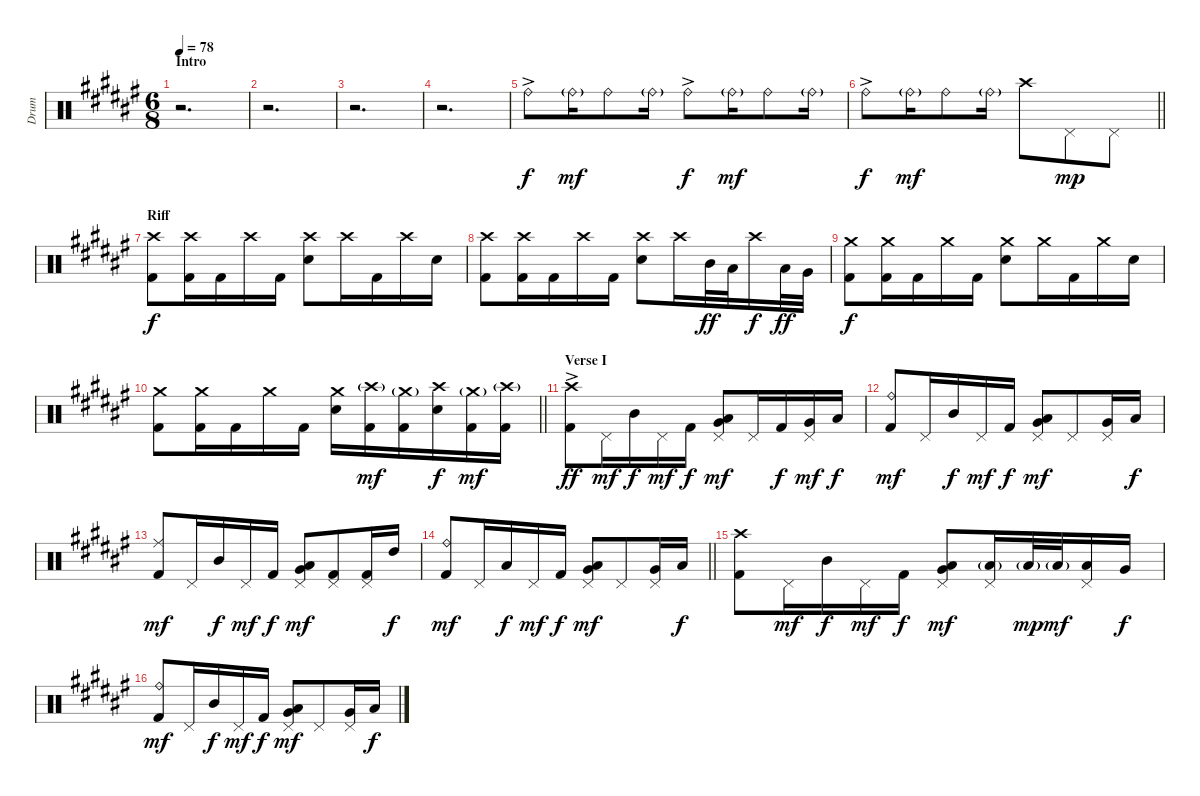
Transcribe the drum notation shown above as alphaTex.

\track ("Drum" "Drum") {instrument percussion}
\staff {score}
\articulation defaults
\ts (6 8)
\section ("" "Intro")
\tempo 78
\clef neutral
\ks d#minor
r.2{d dy f} |
r.2{d} |
r.2{d} |
r.2{d} |
"Ride (bell)"{ac}.8 "Ride (bell)"{g}.16{dy mf} "Ride (bell)".8 "Ride (bell)"{g}.16 "Ride (bell)"{ac}.8{dy f} "Ride (bell)"{g}.16{dy mf} "Ride (bell)".8 "Ride (bell)"{g}.16 |
\barLineRight lightlight "Ride (bell)"{ac}.8{dy f} "Ride (bell)"{g}.16{dy mf} "Ride (bell)".8 "Ride (bell)"{g}.16 "Crash high (hit)".8 "Pedal Hi-Hat (hit)".8{dy mp} "Pedal Hi-Hat (hit)".8
|
\section ("" "Riff")
("Crash high (hit)" "Kick (hit) 2").8{dy f} ("Crash high (hit)" "Kick (hit) 2").16 "Kick (hit) 2".16 "Crash high (hit)".16 "Kick (hit) 2".16 ("Crash high (hit)" "Electric Snare (hit)").8 "Crash high (hit)".16 "Kick (hit) 2".16 "Crash high (hit)".16 "Electric Snare (hit)".16 |
("Crash high (hit)" "Kick (hit) 2").8 ("Crash high (hit)" "Kick (hit) 2").16 "Kick (hit) 2".16 "Crash high (hit)".16 "Kick (hit) 2".16 ("Crash high (hit)" "Electric Snare (hit)").8 "Crash high (hit)".16 "Mid Tom (hit)".32{dy ff} "Low Tom (hit)".32 "Crash high (hit)".16{dy f} "Low Tom (hit)".32{dy ff} "Very Low Tom (hit)".32 |
("Crash medium (hit)" "Kick (hit) 2").8{dy f} ("Crash medium (hit)" "Kick (hit) 2").16 "Kick (hit) 2".16 "Crash medium (hit)".16 "Kick (hit) 2".16 ("Crash medium (hit)" "Electric Snare (hit)").8 "Crash medium (hit)".16 "Kick (hit) 2".16 "Crash medium (hit)".16 "Electric Snare (hit)".16 |
\barLineRight lightlight
("Crash medium (hit)" "Kick (hit) 2").8 ("Crash medium (hit)" "Kick (hit) 2").16 "Kick (hit) 2".16 "Crash medium (hit)".16 "Kick (hit) 2".16 ("Crash medium (hit)" "Electric Snare (hit)").16 ("Crash high (hit)"{g} "Kick (hit) 2").16{dy mf} ("Crash medium (hit)"{g} "Kick (hit) 2").16 ("Crash high (hit)" "Electric Snare (hit)").16{dy f} ("Crash medium (hit)"{g} "Kick (hit) 2").16{dy mf} ("Crash high (hit)"{g} "Kick (hit) 2").16 |
\section ("" "Verse I")
("Crash high (hit)"{ac} "Kick (hit) 2").8{dy ff} "Pedal Hi-Hat (hit)".16{dy mf} "Mid Tom (hit)".16{dy f} "Pedal Hi-Hat (hit)".16{dy mf} "Kick (hit) 2".16{dy f} ("Pedal Hi-Hat (hit)" "Low Tom (hit)" "Very Low Tom (hit)").8{dy mf} "Pedal Hi-Hat (hit)".16 "Kick (hit) 2".16{dy f} ("Pedal Hi-Hat (hit)" "Very Low Tom (hit)").16{dy mf} "Low Floor Tom (hit)".16{dy f} |
("Ride (bell)" "Kick (hit) 2").8{dy mf} "Pedal Hi-Hat (hit)".16 "Mid Tom (hit)".16{dy f} "Pedal Hi-Hat (hit)".16{dy mf} "Kick (hit) 2".16{dy f} ("Pedal Hi-Hat (hit)" "Low Tom (hit)" "Very Low Tom (hit)").8{dy mf} "Pedal Hi-Hat (hit)".8 ("Pedal Hi-Hat (hit)" "Very Low Tom (hit)").16 "Low Floor Tom (hit)".16{dy f} |
("Ride (middle)" "Kick (hit) 2").8{dy mf} "Pedal Hi-Hat (hit)".16 "Mid Tom (hit)".16{dy f} "Pedal Hi-Hat (hit)".16{dy mf} "Kick (hit) 2".16{dy f} ("Pedal Hi-Hat (hit)" "Low Tom (hit)" "Very Low Tom (hit)").8{dy mf} ("Pedal Hi-Hat (hit)" "Kick (hit) 2").8 ("Pedal Hi-Hat (hit)" "Kick (hit) 2").16 "High Tom (hit)".16{dy f} |
\barLineRight lightlight
("Ride (bell)" "Kick (hit) 2").8{dy mf} "Pedal Hi-Hat (hit)".16 "Low Tom (hit)".16{dy f} "Pedal Hi-Hat (hit)".16{dy mf} "Kick (hit) 2".16{dy f} ("Pedal Hi-Hat (hit)" "Low Tom (hit)" "Very Low Tom (hit)").8{dy mf} "Pedal Hi-Hat (hit)".8 ("Pedal Hi-Hat (hit)" "Very Low Tom (hit)").16 "Low Floor Tom (hit)".16{dy f} |
("Crash high (hit)" "Kick (hit) 2").8 "Pedal Hi-Hat (hit)".16{dy mf} "Mid Tom (hit)".16{dy f} "Pedal Hi-Hat (hit)".16{dy mf} "Kick (hit) 2".16{dy f} ("Pedal Hi-Hat (hit)" "Low Tom (hit)" "Very Low Tom (hit)").8{dy mf} ("Pedal Hi-Hat (hit)" "Low Floor Tom (hit)"{g}).16 "Low Floor Tom (hit)"{g}.32{dy mp} "Low Floor Tom (hit)"{g}.32{dy mf} ("Pedal Hi-Hat (hit)" "Low Floor Tom (hit)").16 "Very Low Tom (hit)".16{dy f} |
("Ride (bell)" "Kick (hit) 2").8{dy mf} "Pedal Hi-Hat (hit)".16 "Mid Tom (hit)".16{dy f} "Pedal Hi-Hat (hit)".16{dy mf} "Kick (hit) 2".16{dy f} ("Pedal Hi-Hat (hit)" "Low Tom (hit)" "Very Low Tom (hit)").8{dy mf} "Pedal Hi-Hat (hit)".8 ("Pedal Hi-Hat (hit)" "Very Low Tom (hit)").16 "Low Floor Tom (hit)".16{dy f}
